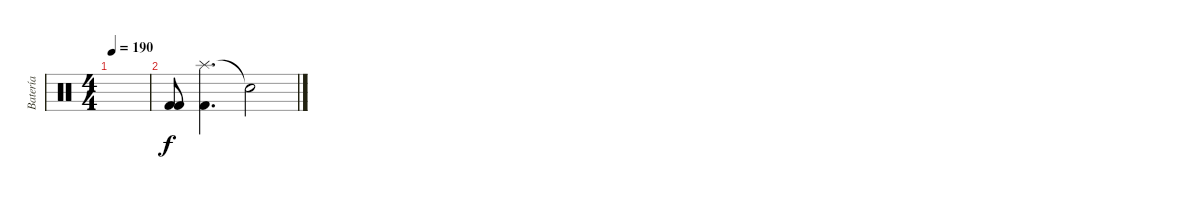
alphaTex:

\track ("Batería" "Batería") {instrument percussion}
\staff {score}
\articulation defaults
\ts (4 4)
\tempo 190
\clef neutral
\ks c
|
("Kick (hit) 2" "Kick (hit) 2").8 ("Splash (hit)" "Kick (hit) 2").4{d} "Snare (hit)"{t}.2{dy f}
